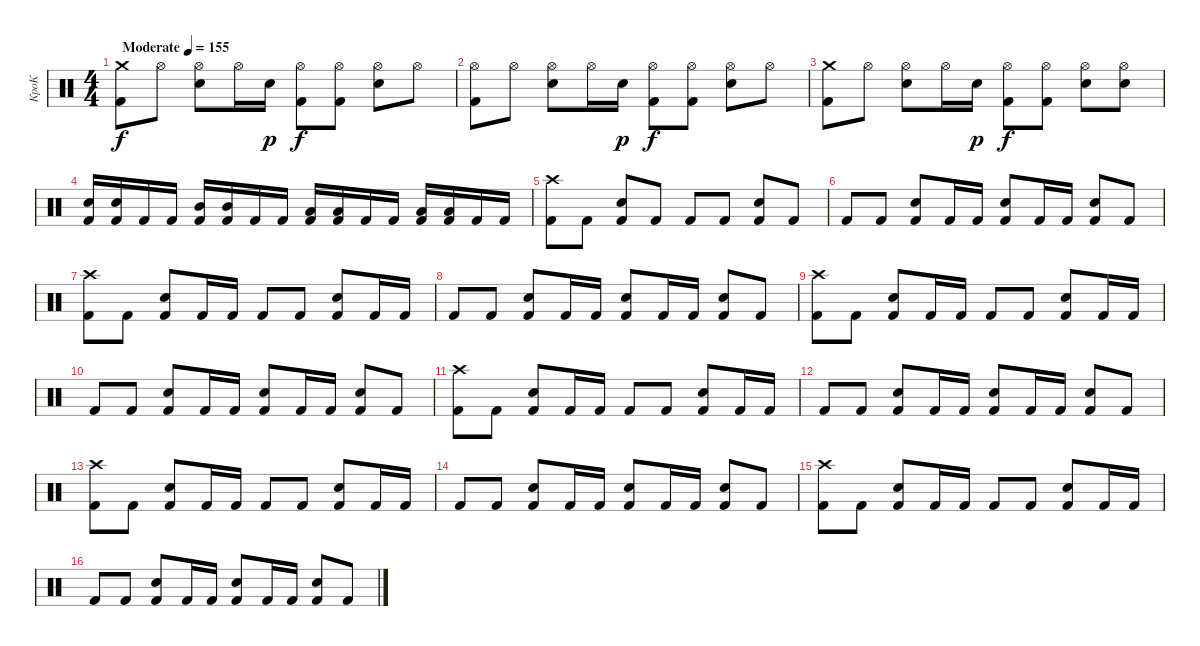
\track ("КроК" "КроК") {instrument percussion}
\staff {score}
\articulation defaults
\ts (4 4)
\tempo (155 "Moderate")
\clef neutral
\ks c
("Crash medium (hit)" "Kick (hit) 2").8{dy f} "Hi-Hat (open)".8 ("Hi-Hat (open)" "Electric Snare (hit)").8 "Hi-Hat (open)".16 "Electric Snare (hit)".16{dy p} ("Hi-Hat (open)" "Kick (hit) 2").8{dy f} ("Hi-Hat (open)" "Kick (hit) 2").8 ("Hi-Hat (open)" "Electric Snare (hit)").8 "Hi-Hat (open)".8 |
("Hi-Hat (open)" "Kick (hit) 2").8 "Hi-Hat (open)".8 ("Hi-Hat (open)" "Electric Snare (hit)").8 "Hi-Hat (open)".16 "Electric Snare (hit)".16{dy p} ("Hi-Hat (open)" "Kick (hit) 2").8{dy f} ("Hi-Hat (open)" "Kick (hit) 2").8 ("Hi-Hat (open)" "Electric Snare (hit)").8 "Hi-Hat (open)".8 |
("Crash medium (hit)" "Kick (hit) 2").8 "Hi-Hat (open)".8 ("Hi-Hat (open)" "Electric Snare (hit)").8 "Hi-Hat (open)".16 "Electric Snare (hit)".16{dy p} ("Hi-Hat (open)" "Kick (hit) 2").8{dy f} ("Hi-Hat (open)" "Kick (hit) 2").8 ("Hi-Hat (open)" "Electric Snare (hit)").8 ("Hi-Hat (open)" "Electric Snare (hit)").8 |
("Electric Snare (hit)" "Kick (hit) 2").16 ("Electric Snare (hit)" "Kick (hit) 2").16 "Kick (hit) 2".16 "Kick (hit) 2".16 ("Mid Tom (hit)" "Kick (hit) 2").16 ("Mid Tom (hit)" "Kick (hit) 2").16 "Kick (hit) 2".16 "Kick (hit) 2".16 ("Low Tom (hit)" "Kick (hit) 2").16 ("Low Tom (hit)" "Kick (hit) 2").16 "Kick (hit) 2".16 "Kick (hit) 2".16 ("Low Floor Tom (hit)" "Kick (hit) 2").16 ("Low Floor Tom (hit)" "Kick (hit) 2").16 "Kick (hit) 2".16 "Kick (hit) 2".16 |
("Kick (hit) 2" "Crash high (hit)").8 "Kick (hit) 2".8 ("Kick (hit) 2" "Electric Snare (hit)").8 "Kick (hit) 2".8 "Kick (hit) 2".8 "Kick (hit) 2".8 ("Kick (hit) 2" "Electric Snare (hit)").8 "Kick (hit) 2".8 |
"Kick (hit) 2".8 "Kick (hit) 2".8 ("Kick (hit) 2" "Electric Snare (hit)").8 "Kick (hit) 2".16 "Kick (hit) 2".16 ("Kick (hit) 2" "Electric Snare (hit)").8 "Kick (hit) 2".16 "Kick (hit) 2".16 ("Kick (hit) 2" "Electric Snare (hit)").8 "Kick (hit) 2".8 |
("Kick (hit) 2" "Crash high (hit)").8 "Kick (hit) 2".8 ("Kick (hit) 2" "Electric Snare (hit)").8 "Kick (hit) 2".16 "Kick (hit) 2".16 "Kick (hit) 2".8 "Kick (hit) 2".8 ("Kick (hit) 2" "Electric Snare (hit)").8 "Kick (hit) 2".16 "Kick (hit) 2".16 |
"Kick (hit) 2".8 "Kick (hit) 2".8 ("Kick (hit) 2" "Electric Snare (hit)").8 "Kick (hit) 2".16 "Kick (hit) 2".16 ("Kick (hit) 2" "Electric Snare (hit)").8 "Kick (hit) 2".16 "Kick (hit) 2".16 ("Kick (hit) 2" "Electric Snare (hit)").8 "Kick (hit) 2".8 |
("Kick (hit) 2" "Crash high (hit)").8 "Kick (hit) 2".8 ("Kick (hit) 2" "Electric Snare (hit)").8 "Kick (hit) 2".16 "Kick (hit) 2".16 "Kick (hit) 2".8 "Kick (hit) 2".8 ("Kick (hit) 2" "Electric Snare (hit)").8 "Kick (hit) 2".16 "Kick (hit) 2".16 |
"Kick (hit) 2".8 "Kick (hit) 2".8 ("Kick (hit) 2" "Electric Snare (hit)").8 "Kick (hit) 2".16 "Kick (hit) 2".16 ("Kick (hit) 2" "Electric Snare (hit)").8 "Kick (hit) 2".16 "Kick (hit) 2".16 ("Kick (hit) 2" "Electric Snare (hit)").8 "Kick (hit) 2".8 |
("Kick (hit) 2" "Crash high (hit)").8 "Kick (hit) 2".8 ("Kick (hit) 2" "Electric Snare (hit)").8 "Kick (hit) 2".16 "Kick (hit) 2".16 "Kick (hit) 2".8 "Kick (hit) 2".8 ("Kick (hit) 2" "Electric Snare (hit)").8 "Kick (hit) 2".16 "Kick (hit) 2".16 |
"Kick (hit) 2".8 "Kick (hit) 2".8 ("Kick (hit) 2" "Electric Snare (hit)").8 "Kick (hit) 2".16 "Kick (hit) 2".16 ("Kick (hit) 2" "Electric Snare (hit)").8 "Kick (hit) 2".16 "Kick (hit) 2".16 ("Kick (hit) 2" "Electric Snare (hit)").8 "Kick (hit) 2".8 |
("Kick (hit) 2" "Crash high (hit)").8 "Kick (hit) 2".8 ("Kick (hit) 2" "Electric Snare (hit)").8 "Kick (hit) 2".16 "Kick (hit) 2".16 "Kick (hit) 2".8 "Kick (hit) 2".8 ("Kick (hit) 2" "Electric Snare (hit)").8 "Kick (hit) 2".16 "Kick (hit) 2".16 |
"Kick (hit) 2".8 "Kick (hit) 2".8 ("Kick (hit) 2" "Electric Snare (hit)").8 "Kick (hit) 2".16 "Kick (hit) 2".16 ("Kick (hit) 2" "Electric Snare (hit)").8 "Kick (hit) 2".16 "Kick (hit) 2".16 ("Kick (hit) 2" "Electric Snare (hit)").8 "Kick (hit) 2".8 |
("Kick (hit) 2" "Crash high (hit)").8 "Kick (hit) 2".8 ("Kick (hit) 2" "Electric Snare (hit)").8 "Kick (hit) 2".16 "Kick (hit) 2".16 "Kick (hit) 2".8 "Kick (hit) 2".8 ("Kick (hit) 2" "Electric Snare (hit)").8 "Kick (hit) 2".16 "Kick (hit) 2".16 |
"Kick (hit) 2".8 "Kick (hit) 2".8 ("Kick (hit) 2" "Electric Snare (hit)").8 "Kick (hit) 2".16 "Kick (hit) 2".16 ("Kick (hit) 2" "Electric Snare (hit)").8 "Kick (hit) 2".16 "Kick (hit) 2".16 ("Kick (hit) 2" "Electric Snare (hit)").8 "Kick (hit) 2".8
